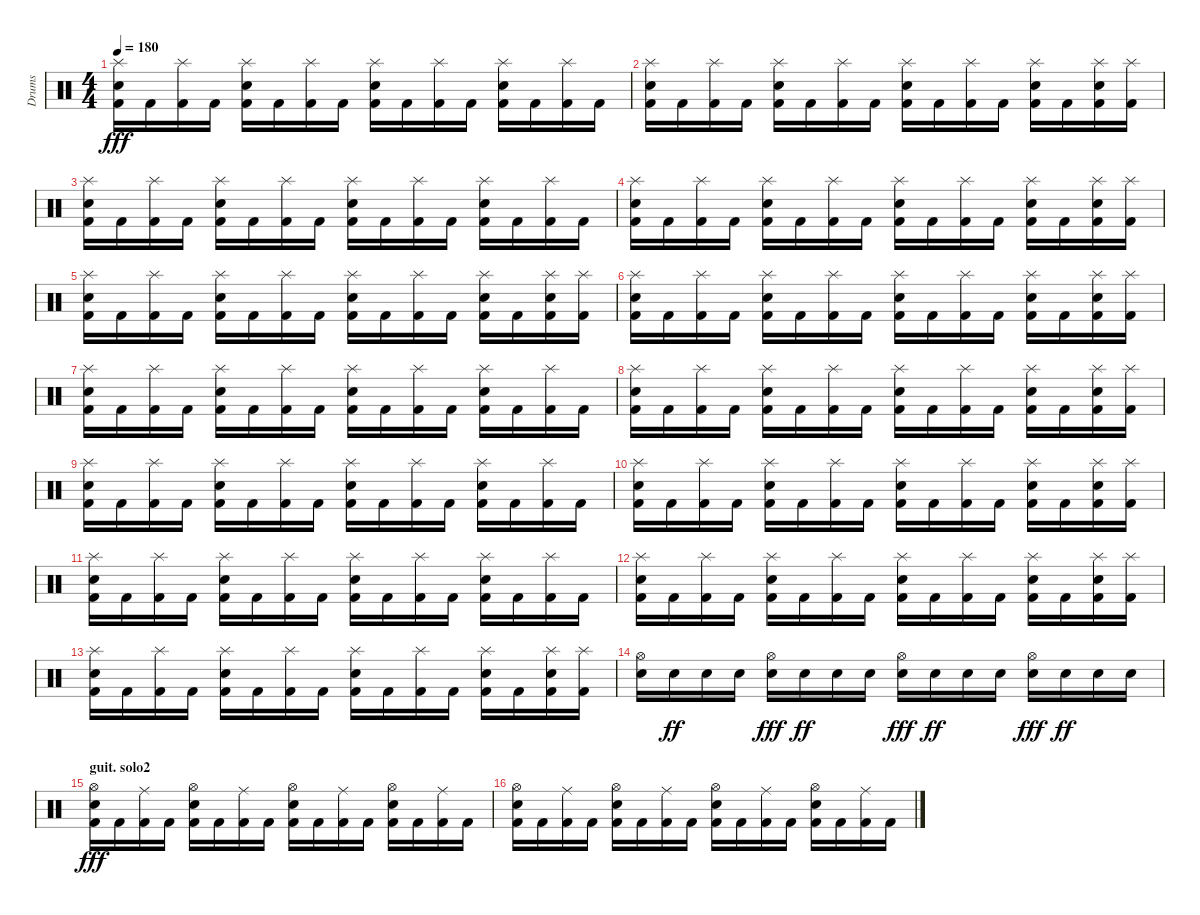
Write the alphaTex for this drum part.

\track ("Drums" "Drums") {instrument percussion}
\staff {score}
\articulation defaults
\ts (4 4)
\tempo 180
\clef neutral
\ks c
("Kick (hit) 2" "Electric Snare (hit)" "Splash (hit)").16{dy fff} "Kick (hit) 2".16 ("Kick (hit) 2" "Splash (hit)").16 "Kick (hit) 2".16 ("Kick (hit) 2" "Electric Snare (hit)" "Splash (hit)").16 "Kick (hit) 2".16 ("Kick (hit) 2" "Splash (hit)").16 "Kick (hit) 2".16 ("Kick (hit) 2" "Electric Snare (hit)" "Splash (hit)").16 "Kick (hit) 2".16 ("Kick (hit) 2" "Splash (hit)").16 "Kick (hit) 2".16 ("Kick (hit) 2" "Electric Snare (hit)" "Splash (hit)").16 "Kick (hit) 2".16 ("Kick (hit) 2" "Splash (hit)").16 "Kick (hit) 2".16 |
("Kick (hit) 2" "Electric Snare (hit)" "Splash (hit)").16 "Kick (hit) 2".16 ("Kick (hit) 2" "Splash (hit)").16 "Kick (hit) 2".16 ("Kick (hit) 2" "Electric Snare (hit)" "Splash (hit)").16 "Kick (hit) 2".16 ("Kick (hit) 2" "Splash (hit)").16 "Kick (hit) 2".16 ("Kick (hit) 2" "Electric Snare (hit)" "Splash (hit)").16 "Kick (hit) 2".16 ("Kick (hit) 2" "Splash (hit)").16 "Kick (hit) 2".16 ("Kick (hit) 2" "Electric Snare (hit)" "Splash (hit)").16 "Kick (hit) 2".16 ("Kick (hit) 2" "Electric Snare (hit)" "Splash (hit)").16 ("Kick (hit) 2" "Splash (hit)").16 |
("Kick (hit) 2" "Electric Snare (hit)" "Splash (hit)").16 "Kick (hit) 2".16 ("Kick (hit) 2" "Splash (hit)").16 "Kick (hit) 2".16 ("Kick (hit) 2" "Electric Snare (hit)" "Splash (hit)").16 "Kick (hit) 2".16 ("Kick (hit) 2" "Splash (hit)").16 "Kick (hit) 2".16 ("Kick (hit) 2" "Electric Snare (hit)" "Splash (hit)").16 "Kick (hit) 2".16 ("Kick (hit) 2" "Splash (hit)").16 "Kick (hit) 2".16 ("Kick (hit) 2" "Electric Snare (hit)" "Splash (hit)").16 "Kick (hit) 2".16 ("Kick (hit) 2" "Splash (hit)").16 "Kick (hit) 2".16 |
("Kick (hit) 2" "Electric Snare (hit)" "Splash (hit)").16 "Kick (hit) 2".16 ("Kick (hit) 2" "Splash (hit)").16 "Kick (hit) 2".16 ("Kick (hit) 2" "Electric Snare (hit)" "Splash (hit)").16 "Kick (hit) 2".16 ("Kick (hit) 2" "Splash (hit)").16 "Kick (hit) 2".16 ("Kick (hit) 2" "Electric Snare (hit)" "Splash (hit)").16 "Kick (hit) 2".16 ("Kick (hit) 2" "Splash (hit)").16 "Kick (hit) 2".16 ("Kick (hit) 2" "Electric Snare (hit)" "Splash (hit)").16 "Kick (hit) 2".16 ("Kick (hit) 2" "Electric Snare (hit)" "Splash (hit)").16 ("Kick (hit) 2" "Splash (hit)").16 |
("Kick (hit) 2" "Electric Snare (hit)" "Splash (hit)").16 "Kick (hit) 2".16 ("Kick (hit) 2" "Splash (hit)").16 "Kick (hit) 2".16 ("Kick (hit) 2" "Electric Snare (hit)" "Splash (hit)").16 "Kick (hit) 2".16 ("Kick (hit) 2" "Splash (hit)").16 "Kick (hit) 2".16 ("Kick (hit) 2" "Electric Snare (hit)" "Splash (hit)").16 "Kick (hit) 2".16 ("Kick (hit) 2" "Splash (hit)").16 "Kick (hit) 2".16 ("Kick (hit) 2" "Electric Snare (hit)" "Splash (hit)").16 "Kick (hit) 2".16 ("Kick (hit) 2" "Electric Snare (hit)" "Splash (hit)").16 ("Kick (hit) 2" "Splash (hit)").16 |
("Kick (hit) 2" "Electric Snare (hit)" "Splash (hit)").16 "Kick (hit) 2".16 ("Kick (hit) 2" "Splash (hit)").16 "Kick (hit) 2".16 ("Kick (hit) 2" "Electric Snare (hit)" "Splash (hit)").16 "Kick (hit) 2".16 ("Kick (hit) 2" "Splash (hit)").16 "Kick (hit) 2".16 ("Kick (hit) 2" "Electric Snare (hit)" "Splash (hit)").16 "Kick (hit) 2".16 ("Kick (hit) 2" "Splash (hit)").16 "Kick (hit) 2".16 ("Kick (hit) 2" "Electric Snare (hit)" "Splash (hit)").16 "Kick (hit) 2".16 ("Kick (hit) 2" "Electric Snare (hit)" "Splash (hit)").16 ("Kick (hit) 2" "Splash (hit)").16 |
("Kick (hit) 2" "Electric Snare (hit)" "Splash (hit)").16 "Kick (hit) 2".16 ("Kick (hit) 2" "Splash (hit)").16 "Kick (hit) 2".16 ("Kick (hit) 2" "Electric Snare (hit)" "Splash (hit)").16 "Kick (hit) 2".16 ("Kick (hit) 2" "Splash (hit)").16 "Kick (hit) 2".16 ("Kick (hit) 2" "Electric Snare (hit)" "Splash (hit)").16 "Kick (hit) 2".16 ("Kick (hit) 2" "Splash (hit)").16 "Kick (hit) 2".16 ("Kick (hit) 2" "Electric Snare (hit)" "Splash (hit)").16 "Kick (hit) 2".16 ("Kick (hit) 2" "Splash (hit)").16 "Kick (hit) 2".16 |
("Kick (hit) 2" "Electric Snare (hit)" "Splash (hit)").16 "Kick (hit) 2".16 ("Kick (hit) 2" "Splash (hit)").16 "Kick (hit) 2".16 ("Kick (hit) 2" "Electric Snare (hit)" "Splash (hit)").16 "Kick (hit) 2".16 ("Kick (hit) 2" "Splash (hit)").16 "Kick (hit) 2".16 ("Kick (hit) 2" "Electric Snare (hit)" "Splash (hit)").16 "Kick (hit) 2".16 ("Kick (hit) 2" "Splash (hit)").16 "Kick (hit) 2".16 ("Kick (hit) 2" "Electric Snare (hit)" "Splash (hit)").16 "Kick (hit) 2".16 ("Kick (hit) 2" "Electric Snare (hit)" "Splash (hit)").16 ("Kick (hit) 2" "Splash (hit)").16 |
("Kick (hit) 2" "Electric Snare (hit)" "Splash (hit)").16 "Kick (hit) 2".16 ("Kick (hit) 2" "Splash (hit)").16 "Kick (hit) 2".16 ("Kick (hit) 2" "Electric Snare (hit)" "Splash (hit)").16 "Kick (hit) 2".16 ("Kick (hit) 2" "Splash (hit)").16 "Kick (hit) 2".16 ("Kick (hit) 2" "Electric Snare (hit)" "Splash (hit)").16 "Kick (hit) 2".16 ("Kick (hit) 2" "Splash (hit)").16 "Kick (hit) 2".16 ("Kick (hit) 2" "Electric Snare (hit)" "Splash (hit)").16 "Kick (hit) 2".16 ("Kick (hit) 2" "Splash (hit)").16 "Kick (hit) 2".16 |
("Kick (hit) 2" "Electric Snare (hit)" "Splash (hit)").16 "Kick (hit) 2".16 ("Kick (hit) 2" "Splash (hit)").16 "Kick (hit) 2".16 ("Kick (hit) 2" "Electric Snare (hit)" "Splash (hit)").16 "Kick (hit) 2".16 ("Kick (hit) 2" "Splash (hit)").16 "Kick (hit) 2".16 ("Kick (hit) 2" "Electric Snare (hit)" "Splash (hit)").16 "Kick (hit) 2".16 ("Kick (hit) 2" "Splash (hit)").16 "Kick (hit) 2".16 ("Kick (hit) 2" "Electric Snare (hit)" "Splash (hit)").16 "Kick (hit) 2".16 ("Kick (hit) 2" "Electric Snare (hit)" "Splash (hit)").16 ("Kick (hit) 2" "Splash (hit)").16 |
("Kick (hit) 2" "Electric Snare (hit)" "Splash (hit)").16 "Kick (hit) 2".16 ("Kick (hit) 2" "Splash (hit)").16 "Kick (hit) 2".16 ("Kick (hit) 2" "Electric Snare (hit)" "Splash (hit)").16 "Kick (hit) 2".16 ("Kick (hit) 2" "Splash (hit)").16 "Kick (hit) 2".16 ("Kick (hit) 2" "Electric Snare (hit)" "Splash (hit)").16 "Kick (hit) 2".16 ("Kick (hit) 2" "Splash (hit)").16 "Kick (hit) 2".16 ("Kick (hit) 2" "Electric Snare (hit)" "Splash (hit)").16 "Kick (hit) 2".16 ("Kick (hit) 2" "Splash (hit)").16 "Kick (hit) 2".16 |
("Kick (hit) 2" "Electric Snare (hit)" "Splash (hit)").16 "Kick (hit) 2".16 ("Kick (hit) 2" "Splash (hit)").16 "Kick (hit) 2".16 ("Kick (hit) 2" "Electric Snare (hit)" "Splash (hit)").16 "Kick (hit) 2".16 ("Kick (hit) 2" "Splash (hit)").16 "Kick (hit) 2".16 ("Kick (hit) 2" "Electric Snare (hit)" "Splash (hit)").16 "Kick (hit) 2".16 ("Kick (hit) 2" "Splash (hit)").16 "Kick (hit) 2".16 ("Kick (hit) 2" "Electric Snare (hit)" "Splash (hit)").16 "Kick (hit) 2".16 ("Kick (hit) 2" "Electric Snare (hit)" "Splash (hit)").16 ("Kick (hit) 2" "Splash (hit)").16 |
("Kick (hit) 2" "Electric Snare (hit)" "Splash (hit)").16 "Kick (hit) 2".16 ("Kick (hit) 2" "Splash (hit)").16 "Kick (hit) 2".16 ("Kick (hit) 2" "Electric Snare (hit)" "Splash (hit)").16 "Kick (hit) 2".16 ("Kick (hit) 2" "Splash (hit)").16 "Kick (hit) 2".16 ("Kick (hit) 2" "Electric Snare (hit)" "Splash (hit)").16 "Kick (hit) 2".16 ("Kick (hit) 2" "Splash (hit)").16 "Kick (hit) 2".16 ("Kick (hit) 2" "Electric Snare (hit)" "Splash (hit)").16 "Kick (hit) 2".16 ("Kick (hit) 2" "Electric Snare (hit)" "Splash (hit)").16 ("Kick (hit) 2" "Splash (hit)").16 |
("Electric Snare (hit)" "Hi-Hat (open)").16 "Electric Snare (hit)".16{dy ff} "Electric Snare (hit)".16 "Electric Snare (hit)".16 ("Electric Snare (hit)" "Hi-Hat (open)").16{dy fff} "Electric Snare (hit)".16{dy ff} "Electric Snare (hit)".16 "Electric Snare (hit)".16 ("Electric Snare (hit)" "Hi-Hat (open)").16{dy fff} "Electric Snare (hit)".16{dy ff} "Electric Snare (hit)".16 "Electric Snare (hit)".16 ("Electric Snare (hit)" "Hi-Hat (open)").16{dy fff} "Electric Snare (hit)".16{dy ff} "Electric Snare (hit)".16 "Electric Snare (hit)".16 |
\section ("" "guit. solo2")
("Electric Snare (hit)" "Hi-Hat (open)" "Kick (hit) 2").16{dy fff} "Kick (hit) 2".16 ("Ride (middle)" "Kick (hit) 2").16 "Kick (hit) 2".16 ("Electric Snare (hit)" "Hi-Hat (open)" "Kick (hit) 2").16 "Kick (hit) 2".16 ("Ride (middle)" "Kick (hit) 2").16 "Kick (hit) 2".16 ("Electric Snare (hit)" "Hi-Hat (open)" "Kick (hit) 2").16 "Kick (hit) 2".16 ("Ride (middle)" "Kick (hit) 2").16 "Kick (hit) 2".16 ("Electric Snare (hit)" "Hi-Hat (open)" "Kick (hit) 2").16 "Kick (hit) 2".16 ("Ride (middle)" "Kick (hit) 2").16 "Kick (hit) 2".16 |
("Electric Snare (hit)" "Hi-Hat (open)" "Kick (hit) 2").16 "Kick (hit) 2".16 ("Ride (middle)" "Kick (hit) 2").16 "Kick (hit) 2".16 ("Electric Snare (hit)" "Hi-Hat (open)" "Kick (hit) 2").16 "Kick (hit) 2".16 ("Ride (middle)" "Kick (hit) 2").16 "Kick (hit) 2".16 ("Electric Snare (hit)" "Hi-Hat (open)" "Kick (hit) 2").16 "Kick (hit) 2".16 ("Ride (middle)" "Kick (hit) 2").16 "Kick (hit) 2".16 ("Electric Snare (hit)" "Hi-Hat (open)" "Kick (hit) 2").16 "Kick (hit) 2".16 ("Ride (middle)" "Kick (hit) 2").16 "Kick (hit) 2".16
